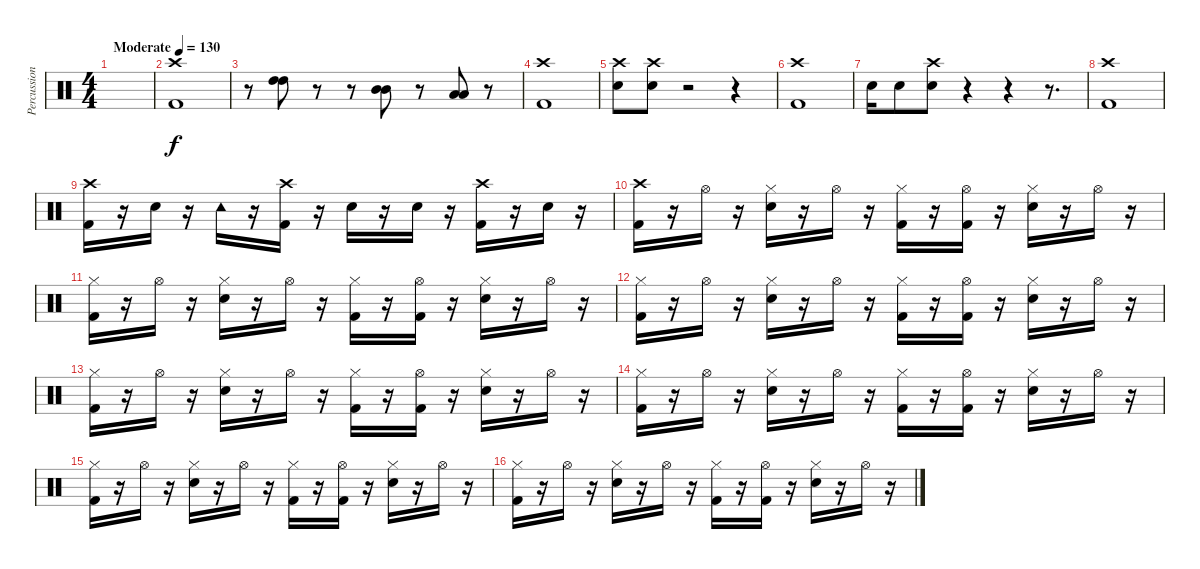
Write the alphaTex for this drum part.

\track ("Percussion" "Percussion") {instrument percussion}
\staff {score}
\articulation defaults
\ts (4 4)
\tempo (130 "Moderate")
\clef neutral
\ks c
|
("Crash high (hit)" "Kick (hit) 2").1 |
r.8 ("High Tom (hit)" "High Tom (hit)").8 r.8 r.8 ("Mid Tom (hit)" "Mid Tom (hit)").8 r.8 ("Low Tom (hit)" "Low Tom (hit)").8 r.8 |
("Crash high (hit)" "Kick (hit) 2").1 |
("Crash high (hit)" "Snare (hit) 2").8 ("Crash high (hit)" "Snare (hit) 2").8 r.2 r.4 |
("Crash high (hit)" "Kick (hit) 2").1 |
"Snare (hit) 2".16 "Snare (hit) 2".8 ("Crash high (hit)" "Snare (hit) 2").8 r.4 r.4 r.8{d} |
("Crash high (hit)" "Kick (hit) 2").1 |
("Crash high (hit)" "Kick (hit) 2").16 r.16 "Snare (hit) 2".16 r.16 "Tambourine (hit)".16 r.16 ("Crash high (hit)" "Kick (hit) 2").16 r.16 "Snare (hit) 2".16 r.16 "Snare (hit) 2".16 r.16 ("Crash high (hit)" "Kick (hit) 2").16 r.16 "Snare (hit) 2".16 r.16 |
("Crash high (hit)" "Kick (hit) 2").16 r.16 "Hi-Hat (open)".16 r.16 ("Hi-Hat (closed)" "Snare (hit) 2").16 r.16 "Hi-Hat (open)".16 r.16 ("Hi-Hat (closed)" "Kick (hit) 2").16 r.16 ("Hi-Hat (open)" "Kick (hit) 2").16 r.16 ("Hi-Hat (closed)" "Snare (hit) 2").16 r.16 "Hi-Hat (open)".16 r.16 |
("Hi-Hat (closed)" "Kick (hit) 2").16 r.16 "Hi-Hat (open)".16 r.16 ("Hi-Hat (closed)" "Snare (hit) 2").16 r.16 "Hi-Hat (open)".16 r.16 ("Hi-Hat (closed)" "Kick (hit) 2").16 r.16 ("Hi-Hat (open)" "Kick (hit) 2").16 r.16 ("Hi-Hat (closed)" "Snare (hit) 2").16 r.16 "Hi-Hat (open)".16 r.16 |
("Hi-Hat (closed)" "Kick (hit) 2").16 r.16 "Hi-Hat (open)".16 r.16 ("Hi-Hat (closed)" "Snare (hit) 2").16 r.16 "Hi-Hat (open)".16 r.16 ("Hi-Hat (closed)" "Kick (hit) 2").16 r.16 ("Hi-Hat (open)" "Kick (hit) 2").16 r.16 ("Hi-Hat (closed)" "Snare (hit) 2").16 r.16 "Hi-Hat (open)".16 r.16 |
("Hi-Hat (closed)" "Kick (hit) 2").16 r.16 "Hi-Hat (open)".16 r.16 ("Hi-Hat (closed)" "Snare (hit) 2").16 r.16 "Hi-Hat (open)".16 r.16 ("Hi-Hat (closed)" "Kick (hit) 2").16 r.16 ("Hi-Hat (open)" "Kick (hit) 2").16 r.16 ("Hi-Hat (closed)" "Snare (hit) 2").16 r.16 "Hi-Hat (open)".16 r.16 |
("Hi-Hat (closed)" "Kick (hit) 2").16 r.16 "Hi-Hat (open)".16 r.16 ("Hi-Hat (closed)" "Snare (hit) 2").16 r.16 "Hi-Hat (open)".16 r.16 ("Hi-Hat (closed)" "Kick (hit) 2").16 r.16 ("Hi-Hat (open)" "Kick (hit) 2").16 r.16 ("Hi-Hat (closed)" "Snare (hit) 2").16 r.16 "Hi-Hat (open)".16 r.16 |
("Hi-Hat (closed)" "Kick (hit) 2").16 r.16 "Hi-Hat (open)".16 r.16 ("Hi-Hat (closed)" "Snare (hit) 2").16 r.16 "Hi-Hat (open)".16 r.16 ("Hi-Hat (closed)" "Kick (hit) 2").16 r.16 ("Hi-Hat (open)" "Kick (hit) 2").16 r.16 ("Hi-Hat (closed)" "Snare (hit) 2").16 r.16 "Hi-Hat (open)".16 r.16 |
("Hi-Hat (closed)" "Kick (hit) 2").16 r.16 "Hi-Hat (open)".16 r.16 ("Hi-Hat (closed)" "Snare (hit) 2").16 r.16 "Hi-Hat (open)".16 r.16 ("Hi-Hat (closed)" "Kick (hit) 2").16 r.16 ("Hi-Hat (open)" "Kick (hit) 2").16 r.16 ("Hi-Hat (closed)" "Snare (hit) 2").16 r.16 "Hi-Hat (open)".16 r.16
